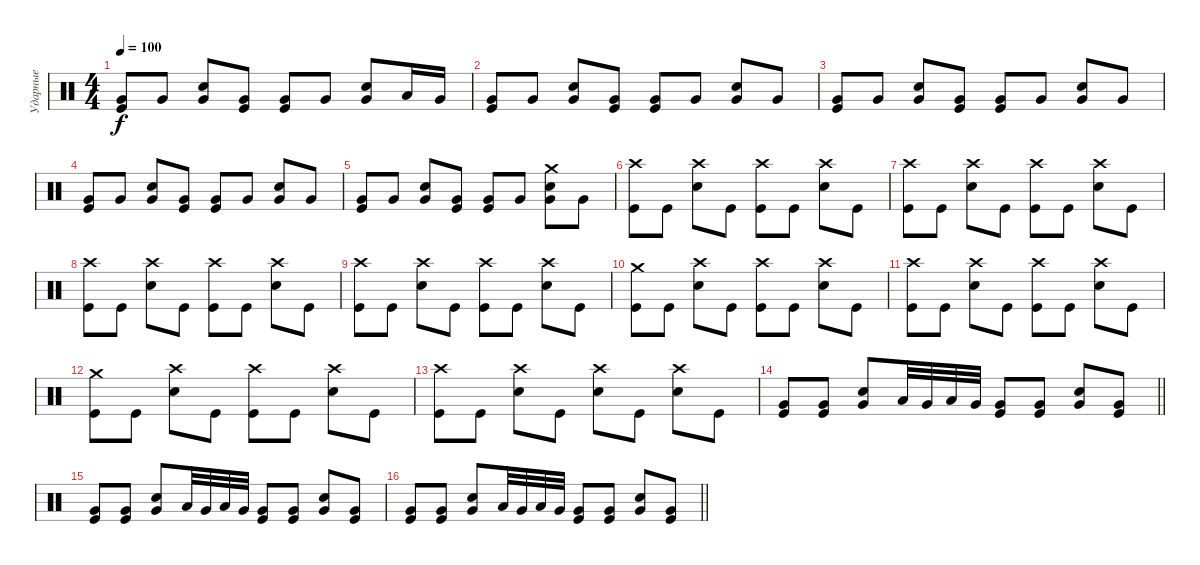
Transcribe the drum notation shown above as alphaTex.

\track ("Ударные" "Ударные") {instrument percussion}
\staff {score}
\articulation defaults
\ts (4 4)
\tempo 100
\clef neutral
\ks c
("Very Low Tom (hit)" "Kick (hit)").8{dy f} "Very Low Tom (hit)".8 ("Very Low Tom (hit)" "Snare (hit) 2").8 ("Very Low Tom (hit)" "Kick (hit)").8 ("Very Low Tom (hit)" "Kick (hit)").8 "Very Low Tom (hit)".8 ("Very Low Tom (hit)" "Snare (hit) 2").8 "Low Tom (hit)".16 "Very Low Tom (hit)".16 |
("Very Low Tom (hit)" "Kick (hit)").8 "Very Low Tom (hit)".8 ("Very Low Tom (hit)" "Snare (hit) 2").8 ("Very Low Tom (hit)" "Kick (hit)").8 ("Very Low Tom (hit)" "Kick (hit)").8 "Very Low Tom (hit)".8 ("Very Low Tom (hit)" "Snare (hit) 2").8 "Very Low Tom (hit)".8 |
("Very Low Tom (hit)" "Kick (hit)").8 "Very Low Tom (hit)".8 ("Very Low Tom (hit)" "Snare (hit) 2").8 ("Very Low Tom (hit)" "Kick (hit)").8 ("Very Low Tom (hit)" "Kick (hit)").8 "Very Low Tom (hit)".8 ("Very Low Tom (hit)" "Snare (hit) 2").8 "Very Low Tom (hit)".8 |
("Very Low Tom (hit)" "Kick (hit)").8 "Very Low Tom (hit)".8 ("Very Low Tom (hit)" "Snare (hit) 2").8 ("Very Low Tom (hit)" "Kick (hit)").8 ("Very Low Tom (hit)" "Kick (hit)").8 "Very Low Tom (hit)".8 ("Very Low Tom (hit)" "Snare (hit) 2").8 "Very Low Tom (hit)".8 |
("Very Low Tom (hit)" "Kick (hit)").8 "Very Low Tom (hit)".8 ("Very Low Tom (hit)" "Snare (hit) 2").8 ("Very Low Tom (hit)" "Kick (hit)").8 ("Very Low Tom (hit)" "Kick (hit)").8 "Very Low Tom (hit)".8 ("Crash medium (hit)" "Very Low Tom (hit)" "Snare (hit) 2").8 "Very Low Tom (hit)".8 |
("Crash high (hit)" "Kick (hit)").8 "Kick (hit)".8 ("Crash high (hit)" "Snare (hit) 2").8 "Kick (hit)".8 ("Crash high (hit)" "Kick (hit)").8 "Kick (hit)".8 ("Crash high (hit)" "Snare (hit) 2").8 "Kick (hit)".8 |
("Crash high (hit)" "Kick (hit)").8 "Kick (hit)".8 ("Crash high (hit)" "Snare (hit) 2").8 "Kick (hit)".8 ("Crash high (hit)" "Kick (hit)").8 "Kick (hit)".8 ("Crash high (hit)" "Snare (hit) 2").8 "Kick (hit)".8 |
("Crash high (hit)" "Kick (hit)").8 "Kick (hit)".8 ("Crash high (hit)" "Snare (hit) 2").8 "Kick (hit)".8 ("Crash high (hit)" "Kick (hit)").8 "Kick (hit)".8 ("Crash high (hit)" "Snare (hit) 2").8 "Kick (hit)".8 |
("Crash high (hit)" "Kick (hit)").8 "Kick (hit)".8 ("Crash high (hit)" "Snare (hit) 2").8 "Kick (hit)".8 ("Crash high (hit)" "Kick (hit)").8 "Kick (hit)".8 ("Crash high (hit)" "Snare (hit) 2").8 "Kick (hit)".8 |
("Crash medium (hit)" "Kick (hit)").8 "Kick (hit)".8 ("Crash high (hit)" "Snare (hit) 2").8 "Kick (hit)".8 ("Crash high (hit)" "Kick (hit)").8 "Kick (hit)".8 ("Crash high (hit)" "Snare (hit) 2").8 "Kick (hit)".8 |
("Crash high (hit)" "Kick (hit)").8 "Kick (hit)".8 ("Crash high (hit)" "Snare (hit) 2").8 "Kick (hit)".8 ("Crash high (hit)" "Kick (hit)").8 "Kick (hit)".8 ("Crash high (hit)" "Snare (hit) 2").8 "Kick (hit)".8 |
("Crash medium (hit)" "Kick (hit)").8 "Kick (hit)".8 ("Crash high (hit)" "Snare (hit) 2").8 "Kick (hit)".8 ("Crash high (hit)" "Kick (hit)").8 "Kick (hit)".8 ("Crash high (hit)" "Snare (hit) 2").8 "Kick (hit)".8 |
("Crash high (hit)" "Kick (hit)").8 "Kick (hit)".8 ("Crash high (hit)" "Snare (hit) 2").8 "Kick (hit)".8 ("Crash high (hit)" "Snare (hit) 2").8 "Kick (hit)".8 ("Crash high (hit)" "Snare (hit) 2").8 "Kick (hit)".8 |
\barLineRight lightlight
("Kick (hit)" "Very Low Tom (hit)").8 ("Kick (hit)" "Very Low Tom (hit)").8 ("Snare (hit) 2" "Very Low Tom (hit)").8 "Low Tom (hit)".32 "Very Low Tom (hit)".32 "Low Tom (hit)".32 "Very Low Tom (hit)".32 ("Kick (hit)" "Very Low Tom (hit)").8 ("Kick (hit)" "Very Low Tom (hit)").8 ("Snare (hit) 2" "Very Low Tom (hit)").8 ("Kick (hit)" "Very Low Tom (hit)").8 |
("Kick (hit)" "Very Low Tom (hit)").8 ("Kick (hit)" "Very Low Tom (hit)").8 ("Snare (hit) 2" "Very Low Tom (hit)").8 "Low Tom (hit)".32 "Very Low Tom (hit)".32 "Low Tom (hit)".32 "Very Low Tom (hit)".32 ("Kick (hit)" "Very Low Tom (hit)").8 ("Kick (hit)" "Very Low Tom (hit)").8 ("Snare (hit) 2" "Very Low Tom (hit)").8 ("Kick (hit)" "Very Low Tom (hit)").8 |
\barLineRight lightlight
("Kick (hit)" "Very Low Tom (hit)").8 ("Kick (hit)" "Very Low Tom (hit)").8 ("Snare (hit) 2" "Very Low Tom (hit)").8 "Low Tom (hit)".32 "Very Low Tom (hit)".32 "Low Tom (hit)".32 "Very Low Tom (hit)".32 ("Kick (hit)" "Very Low Tom (hit)").8 ("Kick (hit)" "Very Low Tom (hit)").8 ("Snare (hit) 2" "Very Low Tom (hit)").8 ("Kick (hit)" "Very Low Tom (hit)").8
